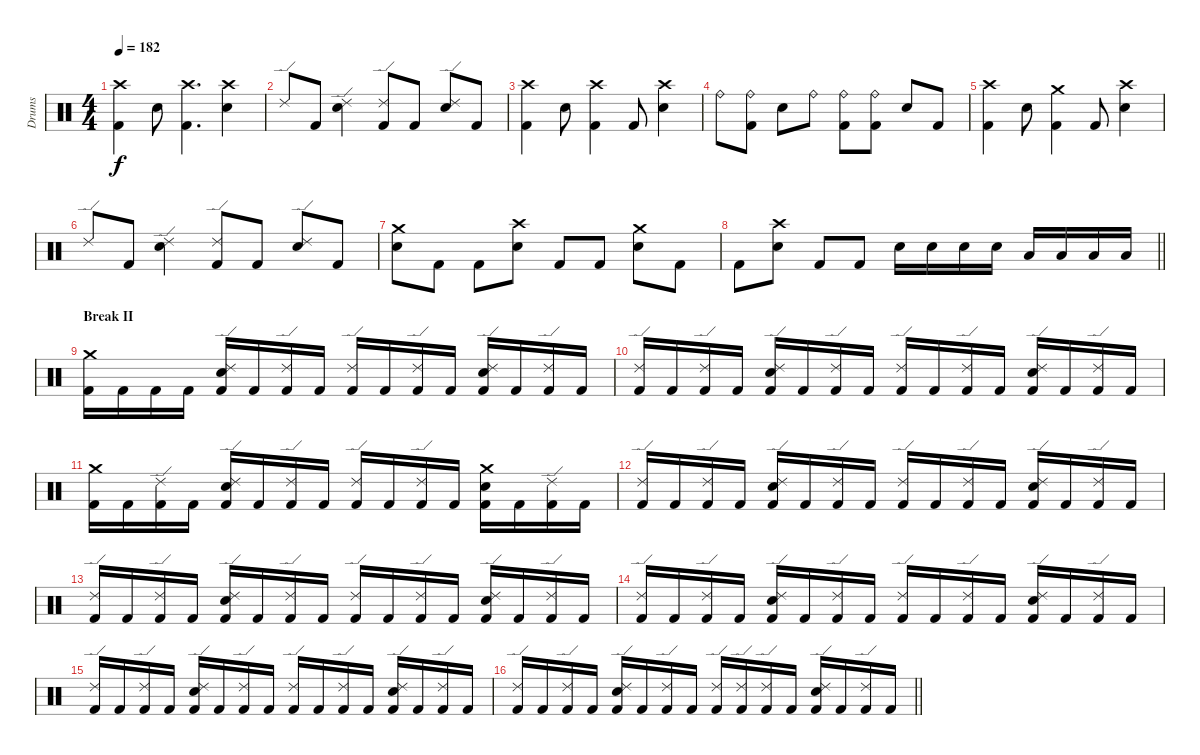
\track ("Drums" "Drums") {instrument percussion}
\staff {score}
\articulation defaults
\ts (4 4)
\section ("" "")
\tempo 182
\clef neutral
\ks c
("Kick (hit) 2" "Crash high (hit)").4{dy f} "Snare (hit) 2".8 ("Kick (hit) 2" "Crash high (hit)").4{d} ("Snare (hit) 2" "Crash high (hit)").4 |
"Ride (edge) 2".8 "Kick (hit) 2".8 ("Snare (hit) 2" "Ride (edge) 2").4 ("Kick (hit) 2" "Ride (edge) 2").8 "Kick (hit) 2".8 ("Snare (hit) 2" "Ride (edge) 2").8 "Kick (hit) 2".8 |
("Kick (hit) 2" "Crash high (hit)").4 "Snare (hit) 2".8 ("Kick (hit) 2" "Crash high (hit)").4 "Kick (hit) 2".8 ("Snare (hit) 2" "Crash high (hit)").4 |
"Ride (bell)".8 ("Kick (hit) 2" "Ride (bell)").8 "Snare (hit) 2".8 "Ride (bell)".8 ("Kick (hit) 2" "Ride (bell)").8 ("Kick (hit) 2" "Ride (bell)").8 "Snare (hit) 2".8 "Kick (hit) 2".8 |
("Kick (hit) 2" "Crash high (hit)").4 "Snare (hit) 2".8 ("Kick (hit) 2" "Crash medium (hit)").4 "Kick (hit) 2".8 ("Snare (hit) 2" "Crash high (hit)").4 |
"Ride (edge) 2".8 "Kick (hit) 2".8 ("Snare (hit) 2" "Ride (edge) 2").4 ("Kick (hit) 2" "Ride (edge) 2").8 "Kick (hit) 2".8 ("Snare (hit) 2" "Ride (edge) 2").8 "Kick (hit) 2".8 |
("Snare (hit) 2" "Crash medium (hit)").8 "Kick (hit) 2".8 "Kick (hit) 2".8 ("Snare (hit) 2" "Crash high (hit)").8 "Kick (hit) 2".8 "Kick (hit) 2".8 ("Snare (hit) 2" "Crash medium (hit)").8 "Kick (hit) 2".8 |
\barLineRight lightlight "Kick (hit) 2".8
("Snare (hit) 2" "Crash high (hit)").8 "Kick (hit) 2".8 "Kick (hit) 2".8 "Snare (hit) 2".16 "Snare (hit) 2".16 "Snare (hit) 2".16 "Snare (hit) 2".16 "Low Tom (hit)".16 "Low Tom (hit)".16 "Low Tom (hit)".16 "Low Tom (hit)".16 |
\section ("" "Break II")
("Kick (hit) 2" "Crash medium (hit)").16 "Kick (hit) 2".16 "Kick (hit) 2".16 "Kick (hit) 2".16 ("Kick (hit) 2" "Snare (hit) 2" "Ride (edge) 2").16 "Kick (hit) 2".16 ("Kick (hit) 2" "Ride (edge) 2").16 "Kick (hit) 2".16 ("Kick (hit) 2" "Ride (edge) 2").16 "Kick (hit) 2".16 ("Kick (hit) 2" "Ride (edge) 2").16 "Kick (hit) 2".16 ("Kick (hit) 2" "Snare (hit) 2" "Ride (edge) 2").16 "Kick (hit) 2".16 ("Kick (hit) 2" "Ride (edge) 2").16 "Kick (hit) 2".16 |
("Kick (hit) 2" "Ride (edge) 2").16 "Kick (hit) 2".16 ("Kick (hit) 2" "Ride (edge) 2").16 "Kick (hit) 2".16 ("Kick (hit) 2" "Snare (hit) 2" "Ride (edge) 2").16 "Kick (hit) 2".16 ("Kick (hit) 2" "Ride (edge) 2").16 "Kick (hit) 2".16 ("Kick (hit) 2" "Ride (edge) 2").16 "Kick (hit) 2".16 ("Kick (hit) 2" "Ride (edge) 2").16 "Kick (hit) 2".16 ("Kick (hit) 2" "Snare (hit) 2" "Ride (edge) 2").16 "Kick (hit) 2".16 ("Kick (hit) 2" "Ride (edge) 2").16 "Kick (hit) 2".16 |
("Kick (hit) 2" "Crash medium (hit)").16 "Kick (hit) 2".16 ("Kick (hit) 2" "Ride (edge) 2").16 "Kick (hit) 2".16 ("Kick (hit) 2" "Snare (hit) 2" "Ride (edge) 2").16 "Kick (hit) 2".16 ("Kick (hit) 2" "Ride (edge) 2").16 "Kick (hit) 2".16 ("Kick (hit) 2" "Ride (edge) 2").16 "Kick (hit) 2".16 ("Kick (hit) 2" "Ride (edge) 2").16 "Kick (hit) 2".16 ("Kick (hit) 2" "Snare (hit) 2" "Crash medium (hit)").16 "Kick (hit) 2".16 ("Kick (hit) 2" "Ride (edge) 2").16 "Kick (hit) 2".16 |
("Kick (hit) 2" "Ride (edge) 2").16 "Kick (hit) 2".16 ("Kick (hit) 2" "Ride (edge) 2").16 "Kick (hit) 2".16 ("Kick (hit) 2" "Snare (hit) 2" "Ride (edge) 2").16 "Kick (hit) 2".16 ("Kick (hit) 2" "Ride (edge) 2").16 "Kick (hit) 2".16 ("Kick (hit) 2" "Ride (edge) 2").16 "Kick (hit) 2".16 ("Kick (hit) 2" "Ride (edge) 2").16 "Kick (hit) 2".16 ("Kick (hit) 2" "Snare (hit) 2" "Ride (edge) 2").16 "Kick (hit) 2".16 ("Kick (hit) 2" "Ride (edge) 2").16 "Kick (hit) 2".16 |
("Kick (hit) 2" "Ride (edge) 2").16 "Kick (hit) 2".16 ("Kick (hit) 2" "Ride (edge) 2").16 "Kick (hit) 2".16 ("Kick (hit) 2" "Snare (hit) 2" "Ride (edge) 2").16 "Kick (hit) 2".16 ("Kick (hit) 2" "Ride (edge) 2").16 "Kick (hit) 2".16 ("Kick (hit) 2" "Ride (edge) 2").16 "Kick (hit) 2".16 ("Kick (hit) 2" "Ride (edge) 2").16 "Kick (hit) 2".16 ("Kick (hit) 2" "Snare (hit) 2" "Ride (edge) 2").16 "Kick (hit) 2".16 ("Kick (hit) 2" "Ride (edge) 2").16 "Kick (hit) 2".16 |
("Kick (hit) 2" "Ride (edge) 2").16 "Kick (hit) 2".16 ("Kick (hit) 2" "Ride (edge) 2").16 "Kick (hit) 2".16 ("Kick (hit) 2" "Snare (hit) 2" "Ride (edge) 2").16 "Kick (hit) 2".16 ("Kick (hit) 2" "Ride (edge) 2").16 "Kick (hit) 2".16 ("Kick (hit) 2" "Ride (edge) 2").16 "Kick (hit) 2".16 ("Kick (hit) 2" "Ride (edge) 2").16 "Kick (hit) 2".16 ("Kick (hit) 2" "Snare (hit) 2" "Ride (edge) 2").16 "Kick (hit) 2".16 ("Kick (hit) 2" "Ride (edge) 2").16 "Kick (hit) 2".16 |
("Kick (hit) 2" "Ride (edge) 2").16 "Kick (hit) 2".16 ("Kick (hit) 2" "Ride (edge) 2").16 "Kick (hit) 2".16 ("Kick (hit) 2" "Snare (hit) 2" "Ride (edge) 2").16 "Kick (hit) 2".16 ("Kick (hit) 2" "Ride (edge) 2").16 "Kick (hit) 2".16 ("Kick (hit) 2" "Ride (edge) 2").16 "Kick (hit) 2".16 ("Kick (hit) 2" "Ride (edge) 2").16 "Kick (hit) 2".16 ("Kick (hit) 2" "Snare (hit) 2" "Ride (edge) 2").16 "Kick (hit) 2".16 ("Kick (hit) 2" "Ride (edge) 2").16 "Kick (hit) 2".16 |
\barLineRight lightlight
("Kick (hit) 2" "Ride (edge) 2").16 "Kick (hit) 2".16 ("Kick (hit) 2" "Ride (edge) 2").16 "Kick (hit) 2".16 ("Kick (hit) 2" "Snare (hit) 2" "Ride (edge) 2").16 "Kick (hit) 2".16 ("Kick (hit) 2" "Ride (edge) 2").16 "Kick (hit) 2".16 ("Kick (hit) 2" "Ride (edge) 2").16 ("Kick (hit) 2" "Ride (edge) 2").16 ("Kick (hit) 2" "Ride (edge) 2").16 "Kick (hit) 2".16 ("Kick (hit) 2" "Snare (hit) 2" "Ride (edge) 2").16 "Kick (hit) 2".16 ("Kick (hit) 2" "Ride (edge) 2").16 "Kick (hit) 2".16
